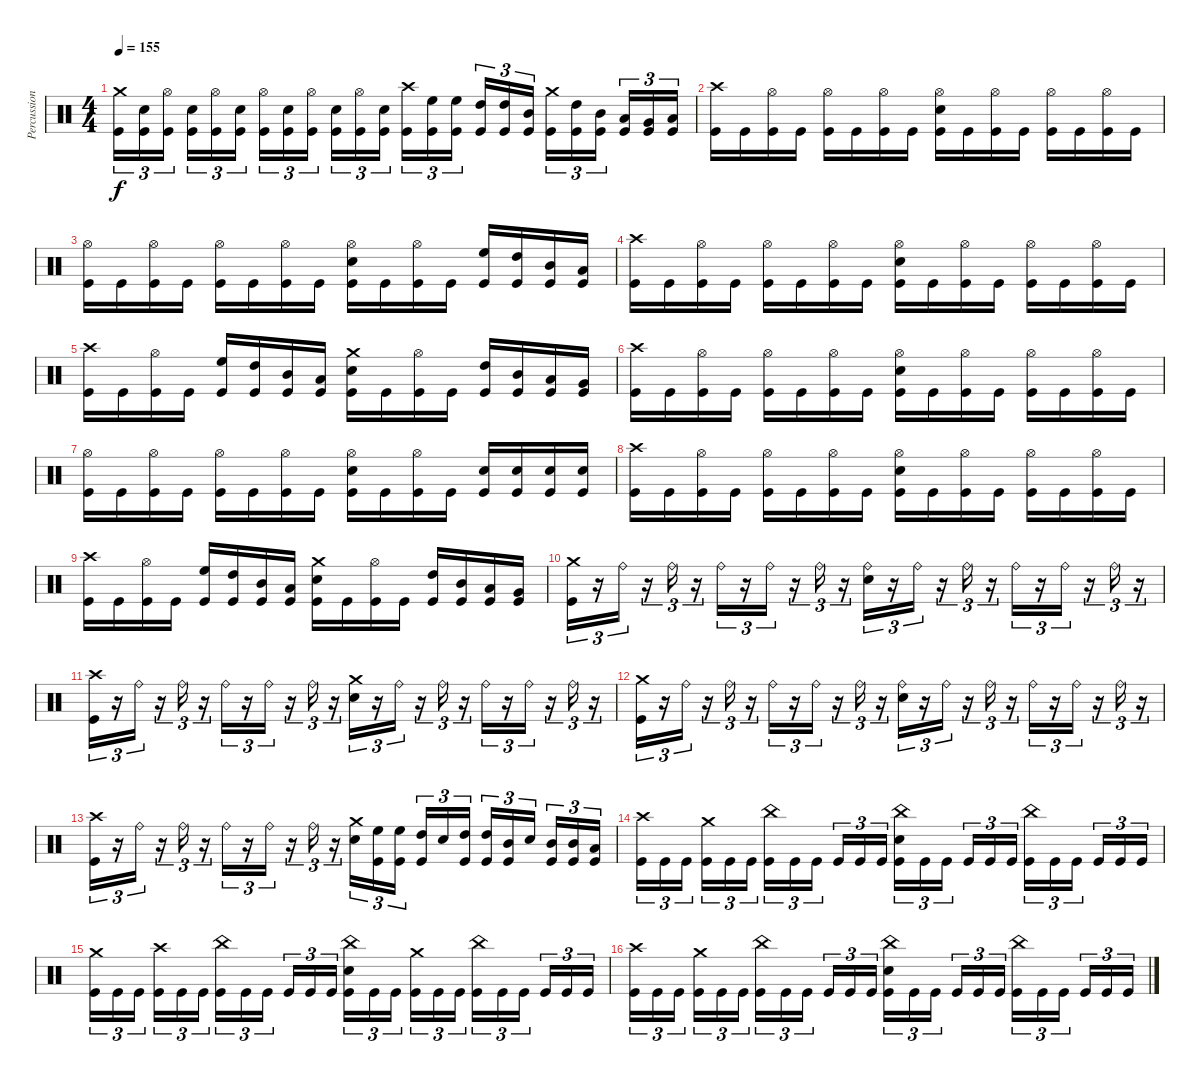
\track ("Percussion" "Percussion") {instrument percussion}
\staff {score}
\articulation defaults
\ts (4 4)
\tempo 155
\clef neutral
\ks c
("Crash medium (hit)" "Kick (hit)").16{tu (3 2) dy f} ("Snare (hit) 2" "Kick (hit)").16{tu (3 2)} ("Hi-Hat (open)" "Kick (hit)").16{tu (3 2) beam splitsecondary} ("Snare (hit) 2" "Kick (hit)").16{tu (3 2)} ("Hi-Hat (open)" "Kick (hit)").16{tu (3 2)} ("Snare (hit) 2" "Kick (hit)").16{tu (3 2)} ("Hi-Hat (open)" "Kick (hit)").16{tu (3 2)} ("Snare (hit) 2" "Kick (hit)").16{tu (3 2)} ("Hi-Hat (open)" "Kick (hit)").16{tu (3 2) beam splitsecondary} ("Snare (hit) 2" "Kick (hit)").16{tu (3 2)} ("Hi-Hat (open)" "Kick (hit)").16{tu (3 2)} ("Snare (hit) 2" "Kick (hit)").16{tu (3 2)} ("Crash high (hit)" "Kick (hit)").16{tu (3 2)} ("High Floor Tom (hit)" "Kick (hit)").16{tu (3 2)} ("High Floor Tom (hit)" "Kick (hit)").16{tu (3 2) beam splitsecondary} ("High Tom (hit)" "Kick (hit)").16{tu (3 2)} ("High Tom (hit)" "Kick (hit)").16{tu (3 2)} ("Mid Tom (hit)" "Kick (hit)").16{tu (3 2)} ("Crash medium (hit)" "Kick (hit)").16{tu (3 2)} ("High Tom (hit)" "Kick (hit)").16{tu (3 2)} ("Mid Tom (hit)" "Kick (hit)").16{tu (3 2) beam splitsecondary} ("Low Tom (hit)" "Kick (hit)").16{tu (3 2)} ("Very Low Tom (hit)" "Kick (hit)").16{tu (3 2)} ("Low Floor Tom (hit)" "Kick (hit)").16{tu (3 2)} |
("Crash high (hit)" "Kick (hit)").16 "Kick (hit)".16 ("Hi-Hat (open)" "Kick (hit)").16 "Kick (hit)".16 ("Hi-Hat (open)" "Kick (hit)").16 "Kick (hit)".16 ("Hi-Hat (open)" "Kick (hit)").16 "Kick (hit)".16 ("Hi-Hat (open)" "Snare (hit) 2" "Kick (hit)").16 "Kick (hit)".16 ("Hi-Hat (open)" "Kick (hit)").16 "Kick (hit)".16 ("Hi-Hat (open)" "Kick (hit)").16 "Kick (hit)".16 ("Hi-Hat (open)" "Kick (hit)").16 "Kick (hit)".16 |
("Hi-Hat (open)" "Kick (hit)").16 "Kick (hit)".16 ("Hi-Hat (open)" "Kick (hit)").16 "Kick (hit)".16 ("Hi-Hat (open)" "Kick (hit)").16 "Kick (hit)".16 ("Hi-Hat (open)" "Kick (hit)").16 "Kick (hit)".16 ("Hi-Hat (open)" "Snare (hit) 2" "Kick (hit)").16 "Kick (hit)".16 ("Hi-Hat (open)" "Kick (hit)").16 "Kick (hit)".16 ("High Floor Tom (hit)" "Kick (hit)").16 ("High Tom (hit)" "Kick (hit)").16 ("Mid Tom (hit)" "Kick (hit)").16 ("Low Tom (hit)" "Kick (hit)").16 |
("Crash high (hit)" "Kick (hit)").16 "Kick (hit)".16 ("Hi-Hat (open)" "Kick (hit)").16 "Kick (hit)".16 ("Hi-Hat (open)" "Kick (hit)").16 "Kick (hit)".16 ("Hi-Hat (open)" "Kick (hit)").16 "Kick (hit)".16 ("Hi-Hat (open)" "Snare (hit) 2" "Kick (hit)").16 "Kick (hit)".16 ("Hi-Hat (open)" "Kick (hit)").16 "Kick (hit)".16 ("Hi-Hat (open)" "Kick (hit)").16 "Kick (hit)".16 ("Hi-Hat (open)" "Kick (hit)").16 "Kick (hit)".16 |
("Crash high (hit)" "Kick (hit)").16 "Kick (hit)".16 ("Hi-Hat (open)" "Kick (hit)").16 "Kick (hit)".16 ("High Floor Tom (hit)" "Kick (hit)").16 ("High Tom (hit)" "Kick (hit)").16 ("Mid Tom (hit)" "Kick (hit)").16 ("Low Tom (hit)" "Kick (hit)").16 ("Crash medium (hit)" "Snare (hit) 2" "Kick (hit)").16 "Kick (hit)".16 ("Hi-Hat (open)" "Kick (hit)").16 "Kick (hit)".16 ("High Tom (hit)" "Kick (hit)").16 ("Mid Tom (hit)" "Kick (hit)").16 ("Low Tom (hit)" "Kick (hit)").16 ("Very Low Tom (hit)" "Kick (hit)").16 |
("Crash high (hit)" "Kick (hit)").16 "Kick (hit)".16 ("Hi-Hat (open)" "Kick (hit)").16 "Kick (hit)".16 ("Hi-Hat (open)" "Kick (hit)").16 "Kick (hit)".16 ("Hi-Hat (open)" "Kick (hit)").16 "Kick (hit)".16 ("Hi-Hat (open)" "Snare (hit) 2" "Kick (hit)").16 "Kick (hit)".16 ("Hi-Hat (open)" "Kick (hit)").16 "Kick (hit)".16 ("Hi-Hat (open)" "Kick (hit)").16 "Kick (hit)".16 ("Hi-Hat (open)" "Kick (hit)").16 "Kick (hit)".16 |
("Hi-Hat (open)" "Kick (hit)").16 "Kick (hit)".16 ("Hi-Hat (open)" "Kick (hit)").16 "Kick (hit)".16 ("Hi-Hat (open)" "Kick (hit)").16 "Kick (hit)".16 ("Hi-Hat (open)" "Kick (hit)").16 "Kick (hit)".16 ("Hi-Hat (open)" "Snare (hit) 2" "Kick (hit)").16 "Kick (hit)".16 ("Hi-Hat (open)" "Kick (hit)").16 "Kick (hit)".16 ("Snare (hit) 2" "Kick (hit)").16 ("Snare (hit) 2" "Kick (hit)").16 ("Snare (hit) 2" "Kick (hit)").16 ("Snare (hit) 2" "Kick (hit)").16 |
("Crash high (hit)" "Kick (hit)").16 "Kick (hit)".16 ("Hi-Hat (open)" "Kick (hit)").16 "Kick (hit)".16 ("Hi-Hat (open)" "Kick (hit)").16 "Kick (hit)".16 ("Hi-Hat (open)" "Kick (hit)").16 "Kick (hit)".16 ("Hi-Hat (open)" "Snare (hit) 2" "Kick (hit)").16 "Kick (hit)".16 ("Hi-Hat (open)" "Kick (hit)").16 "Kick (hit)".16 ("Hi-Hat (open)" "Kick (hit)").16 "Kick (hit)".16 ("Hi-Hat (open)" "Kick (hit)").16 "Kick (hit)".16 |
("Crash high (hit)" "Kick (hit)").16 "Kick (hit)".16 ("Hi-Hat (open)" "Kick (hit)").16 "Kick (hit)".16 ("High Floor Tom (hit)" "Kick (hit)").16 ("High Tom (hit)" "Kick (hit)").16 ("Mid Tom (hit)" "Kick (hit)").16 ("Low Tom (hit)" "Kick (hit)").16 ("Crash medium (hit)" "Snare (hit) 2" "Kick (hit)").16 "Kick (hit)".16 ("Hi-Hat (open)" "Kick (hit)").16 "Kick (hit)".16 ("High Tom (hit)" "Kick (hit)").16 ("Mid Tom (hit)" "Kick (hit)").16 ("Low Tom (hit)" "Kick (hit)").16 ("Very Low Tom (hit)" "Kick (hit)").16 |
("Crash medium (hit)" "Kick (hit)").16{tu (3 2)} r.16{tu (3 2)} "Ride (bell)".16{tu (3 2)} r.16{tu (3 2)} "Ride (bell)".16{tu (3 2)} r.16{tu (3 2)} "Ride (bell)".16{tu (3 2)} r.16{tu (3 2)} "Ride (bell)".16{tu (3 2)} r.16{tu (3 2)} "Ride (bell)".16{tu (3 2)} r.16{tu (3 2)} ("Ride (bell)" "Snare (hit) 2").16{tu (3 2)} r.16{tu (3 2)} "Ride (bell)".16{tu (3 2)} r.16{tu (3 2)} "Ride (bell)".16{tu (3 2)} r.16{tu (3 2)} "Ride (bell)".16{tu (3 2)} r.16{tu (3 2)} "Ride (bell)".16{tu (3 2)} r.16{tu (3 2)} "Ride (bell)".16{tu (3 2)} r.16{tu (3 2)} |
("Crash high (hit)" "Kick (hit)").16{tu (3 2)} r.16{tu (3 2)} "Ride (bell)".16{tu (3 2)} r.16{tu (3 2)} "Ride (bell)".16{tu (3 2)} r.16{tu (3 2)} "Ride (bell)".16{tu (3 2)} r.16{tu (3 2)} "Ride (bell)".16{tu (3 2)} r.16{tu (3 2)} "Ride (bell)".16{tu (3 2)} r.16{tu (3 2)} ("Crash medium (hit)" "Snare (hit) 2").16{tu (3 2)} r.16{tu (3 2)} "Ride (bell)".16{tu (3 2)} r.16{tu (3 2)} "Ride (bell)".16{tu (3 2)} r.16{tu (3 2)} "Ride (bell)".16{tu (3 2)} r.16{tu (3 2)} "Ride (bell)".16{tu (3 2)} r.16{tu (3 2)} "Ride (bell)".16{tu (3 2)} r.16{tu (3 2)} |
("Crash medium (hit)" "Kick (hit)").16{tu (3 2)} r.16{tu (3 2)} "Ride (bell)".16{tu (3 2)} r.16{tu (3 2)} "Ride (bell)".16{tu (3 2)} r.16{tu (3 2)} "Ride (bell)".16{tu (3 2)} r.16{tu (3 2)} "Ride (bell)".16{tu (3 2)} r.16{tu (3 2)} "Ride (bell)".16{tu (3 2)} r.16{tu (3 2)} ("Ride (bell)" "Snare (hit) 2").16{tu (3 2)} r.16{tu (3 2)} "Ride (bell)".16{tu (3 2)} r.16{tu (3 2)} "Ride (bell)".16{tu (3 2)} r.16{tu (3 2)} "Ride (bell)".16{tu (3 2)} r.16{tu (3 2)} "Ride (bell)".16{tu (3 2)} r.16{tu (3 2)} "Ride (bell)".16{tu (3 2)} r.16{tu (3 2)} |
("Crash high (hit)" "Kick (hit)").16{tu (3 2)} r.16{tu (3 2)} "Ride (bell)".16{tu (3 2)} r.16{tu (3 2)} "Ride (bell)".16{tu (3 2)} r.16{tu (3 2)} "Ride (bell)".16{tu (3 2)} r.16{tu (3 2)} "Ride (bell)".16{tu (3 2)} r.16{tu (3 2)} "Ride (bell)".16{tu (3 2)} r.16{tu (3 2)} ("Crash medium (hit)" "Snare (hit) 2").16{tu (3 2)} ("High Floor Tom (hit)" "Kick (hit)").16{tu (3 2)} ("High Floor Tom (hit)" "Kick (hit)").16{tu (3 2) beam splitsecondary} ("High Tom (hit)" "Kick (hit)").16{tu (3 2)} "Snare (hit) 2".16{tu (3 2)} ("High Tom (hit)" "Kick (hit)").16{tu (3 2)} ("High Tom (hit)" "Kick (hit)").16{tu (3 2)} ("Mid Tom (hit)" "Kick (hit)").16{tu (3 2)} "Snare (hit) 2".16{tu (3 2) beam splitsecondary} ("Mid Tom (hit)" "Kick (hit)").16{tu (3 2)} ("Mid Tom (hit)" "Kick (hit)").16{tu (3 2)} ("Low Tom (hit)" "Kick (hit)").16{tu (3 2)} |
("Crash high (hit)" "Kick (hit)").16{tu (3 2)} "Kick (hit)".16{tu (3 2)} "Kick (hit)".16{tu (3 2) beam splitsecondary} ("Crash medium (hit)" "Kick (hit)").16{tu (3 2)} "Kick (hit)".16{tu (3 2)} "Kick (hit)".16{tu (3 2)} ("China (hit)" "Kick (hit)").16{tu (3 2)} "Kick (hit)".16{tu (3 2)} "Kick (hit)".16{tu (3 2) beam splitsecondary} "Kick (hit)".16{tu (3 2)} "Kick (hit)".16{tu (3 2)} "Kick (hit)".16{tu (3 2)} ("China (hit)" "Snare (hit) 2" "Kick (hit)").16{tu (3 2)} "Kick (hit)".16{tu (3 2)} "Kick (hit)".16{tu (3 2) beam splitsecondary} "Kick (hit)".16{tu (3 2)} "Kick (hit)".16{tu (3 2)} "Kick (hit)".16{tu (3 2)} ("China (hit)" "Kick (hit)").16{tu (3 2)} "Kick (hit)".16{tu (3 2)} "Kick (hit)".16{tu (3 2) beam splitsecondary} "Kick (hit)".16{tu (3 2)} "Kick (hit)".16{tu (3 2)} "Kick (hit)".16{tu (3 2)} |
("Crash medium (hit)" "Kick (hit)").16{tu (3 2)} "Kick (hit)".16{tu (3 2)} "Kick (hit)".16{tu (3 2) beam splitsecondary} ("Crash high (hit)" "Kick (hit)").16{tu (3 2)} "Kick (hit)".16{tu (3 2)} "Kick (hit)".16{tu (3 2)} ("China (hit)" "Kick (hit)").16{tu (3 2)} "Kick (hit)".16{tu (3 2)} "Kick (hit)".16{tu (3 2) beam splitsecondary} "Kick (hit)".16{tu (3 2)} "Kick (hit)".16{tu (3 2)} "Kick (hit)".16{tu (3 2)} ("China (hit)" "Snare (hit) 2" "Kick (hit)").16{tu (3 2)} "Kick (hit)".16{tu (3 2)} "Kick (hit)".16{tu (3 2) beam splitsecondary} ("Crash medium (hit)" "Kick (hit)").16{tu (3 2)} "Kick (hit)".16{tu (3 2)} "Kick (hit)".16{tu (3 2)} ("China (hit)" "Kick (hit)").16{tu (3 2)} "Kick (hit)".16{tu (3 2)} "Kick (hit)".16{tu (3 2) beam splitsecondary} "Kick (hit)".16{tu (3 2)} "Kick (hit)".16{tu (3 2)} "Kick (hit)".16{tu (3 2)} |
("Crash high (hit)" "Kick (hit)").16{tu (3 2)} "Kick (hit)".16{tu (3 2)} "Kick (hit)".16{tu (3 2) beam splitsecondary} ("Crash medium (hit)" "Kick (hit)").16{tu (3 2)} "Kick (hit)".16{tu (3 2)} "Kick (hit)".16{tu (3 2)} ("China (hit)" "Kick (hit)").16{tu (3 2)} "Kick (hit)".16{tu (3 2)} "Kick (hit)".16{tu (3 2) beam splitsecondary} "Kick (hit)".16{tu (3 2)} "Kick (hit)".16{tu (3 2)} "Kick (hit)".16{tu (3 2)} ("China (hit)" "Snare (hit) 2" "Kick (hit)").16{tu (3 2)} "Kick (hit)".16{tu (3 2)} "Kick (hit)".16{tu (3 2) beam splitsecondary} "Kick (hit)".16{tu (3 2)} "Kick (hit)".16{tu (3 2)} "Kick (hit)".16{tu (3 2)} ("China (hit)" "Kick (hit)").16{tu (3 2)} "Kick (hit)".16{tu (3 2)} "Kick (hit)".16{tu (3 2) beam splitsecondary} "Kick (hit)".16{tu (3 2)} "Kick (hit)".16{tu (3 2)} "Kick (hit)".16{tu (3 2)}
